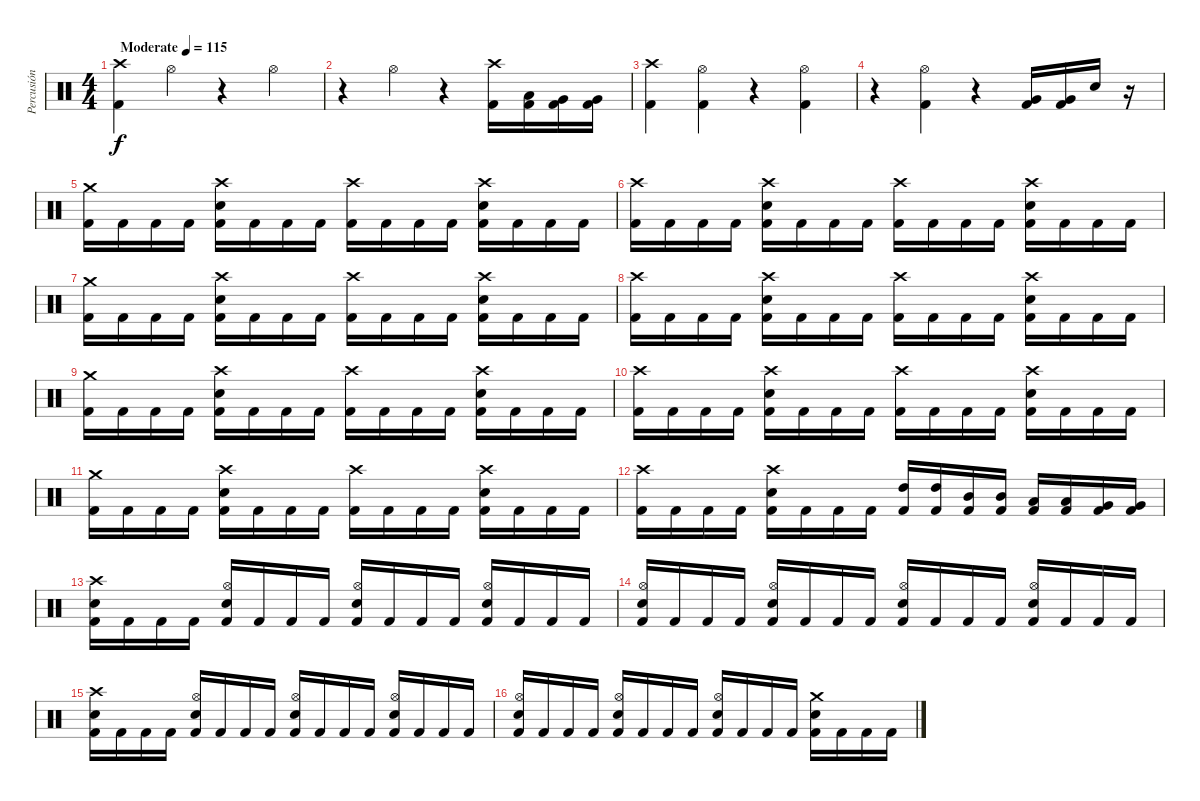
\track ("Percusión" "Percusión") {instrument percussion}
\staff {score}
\articulation defaults
\ts (4 4)
\tempo (115 "Moderate")
\clef neutral
\ks c
("Crash high (hit)" "Kick (hit) 2").4{dy f} "Hi-Hat (open)".4 r.4 "Hi-Hat (open)".4 |
r.4 "Hi-Hat (open)".4 r.4 ("Crash high (hit)" "Kick (hit) 2").16 ("Low Tom (hit)" "Kick (hit) 2").16 ("Very Low Tom (hit)" "Kick (hit) 2").16 ("Very Low Tom (hit)" "Kick (hit) 2").16 |
("Crash high (hit)" "Kick (hit) 2").4 ("Hi-Hat (open)" "Kick (hit) 2").4 r.4 ("Hi-Hat (open)" "Kick (hit) 2").4 |
r.4 ("Hi-Hat (open)" "Kick (hit) 2").4 r.4 ("Very Low Tom (hit)" "Kick (hit) 2").16 ("Very Low Tom (hit)" "Kick (hit) 2").16 "Snare (hit) 2".16 r.16 |
("Crash medium (hit)" "Kick (hit) 2").16 "Kick (hit) 2".16 "Kick (hit) 2".16 "Kick (hit) 2".16 ("Crash high (hit)" "Snare (hit) 2" "Kick (hit) 2").16 "Kick (hit) 2".16 "Kick (hit) 2".16 "Kick (hit) 2".16 ("Crash high (hit)" "Kick (hit) 2").16 "Kick (hit) 2".16 "Kick (hit) 2".16 "Kick (hit) 2".16 ("Crash high (hit)" "Snare (hit) 2" "Kick (hit) 2").16 "Kick (hit) 2".16 "Kick (hit) 2".16 "Kick (hit) 2".16 |
("Crash high (hit)" "Kick (hit) 2").16 "Kick (hit) 2".16 "Kick (hit) 2".16 "Kick (hit) 2".16 ("Crash high (hit)" "Snare (hit) 2" "Kick (hit) 2").16 "Kick (hit) 2".16 "Kick (hit) 2".16 "Kick (hit) 2".16 ("Crash high (hit)" "Kick (hit) 2").16 "Kick (hit) 2".16 "Kick (hit) 2".16 "Kick (hit) 2".16 ("Crash high (hit)" "Snare (hit) 2" "Kick (hit) 2").16 "Kick (hit) 2".16 "Kick (hit) 2".16 "Kick (hit) 2".16 |
("Crash medium (hit)" "Kick (hit) 2").16 "Kick (hit) 2".16 "Kick (hit) 2".16 "Kick (hit) 2".16 ("Crash high (hit)" "Snare (hit) 2" "Kick (hit) 2").16 "Kick (hit) 2".16 "Kick (hit) 2".16 "Kick (hit) 2".16 ("Crash high (hit)" "Kick (hit) 2").16 "Kick (hit) 2".16 "Kick (hit) 2".16 "Kick (hit) 2".16 ("Crash high (hit)" "Snare (hit) 2" "Kick (hit) 2").16 "Kick (hit) 2".16 "Kick (hit) 2".16 "Kick (hit) 2".16 |
("Crash high (hit)" "Kick (hit) 2").16 "Kick (hit) 2".16 "Kick (hit) 2".16 "Kick (hit) 2".16 ("Crash high (hit)" "Snare (hit) 2" "Kick (hit) 2").16 "Kick (hit) 2".16 "Kick (hit) 2".16 "Kick (hit) 2".16 ("Crash high (hit)" "Kick (hit) 2").16 "Kick (hit) 2".16 "Kick (hit) 2".16 "Kick (hit) 2".16 ("Crash high (hit)" "Snare (hit) 2" "Kick (hit) 2").16 "Kick (hit) 2".16 "Kick (hit) 2".16 "Kick (hit) 2".16 |
("Crash medium (hit)" "Kick (hit) 2").16 "Kick (hit) 2".16 "Kick (hit) 2".16 "Kick (hit) 2".16 ("Crash high (hit)" "Snare (hit) 2" "Kick (hit) 2").16 "Kick (hit) 2".16 "Kick (hit) 2".16 "Kick (hit) 2".16 ("Crash high (hit)" "Kick (hit) 2").16 "Kick (hit) 2".16 "Kick (hit) 2".16 "Kick (hit) 2".16 ("Crash high (hit)" "Snare (hit) 2" "Kick (hit) 2").16 "Kick (hit) 2".16 "Kick (hit) 2".16 "Kick (hit) 2".16 |
("Crash high (hit)" "Kick (hit) 2").16 "Kick (hit) 2".16 "Kick (hit) 2".16 "Kick (hit) 2".16 ("Crash high (hit)" "Snare (hit) 2" "Kick (hit) 2").16 "Kick (hit) 2".16 "Kick (hit) 2".16 "Kick (hit) 2".16 ("Crash high (hit)" "Kick (hit) 2").16 "Kick (hit) 2".16 "Kick (hit) 2".16 "Kick (hit) 2".16 ("Crash high (hit)" "Snare (hit) 2" "Kick (hit) 2").16 "Kick (hit) 2".16 "Kick (hit) 2".16 "Kick (hit) 2".16 |
("Crash medium (hit)" "Kick (hit) 2").16 "Kick (hit) 2".16 "Kick (hit) 2".16 "Kick (hit) 2".16 ("Crash high (hit)" "Snare (hit) 2" "Kick (hit) 2").16 "Kick (hit) 2".16 "Kick (hit) 2".16 "Kick (hit) 2".16 ("Crash high (hit)" "Kick (hit) 2").16 "Kick (hit) 2".16 "Kick (hit) 2".16 "Kick (hit) 2".16 ("Crash high (hit)" "Snare (hit) 2" "Kick (hit) 2").16 "Kick (hit) 2".16 "Kick (hit) 2".16 "Kick (hit) 2".16 |
("Crash high (hit)" "Kick (hit) 2").16 "Kick (hit) 2".16 "Kick (hit) 2".16 "Kick (hit) 2".16 ("Crash high (hit)" "Snare (hit) 2" "Kick (hit) 2").16 "Kick (hit) 2".16 "Kick (hit) 2".16 "Kick (hit) 2".16 ("High Tom (hit)" "Kick (hit) 2").16 ("High Tom (hit)" "Kick (hit) 2").16 ("Mid Tom (hit)" "Kick (hit) 2").16 ("Mid Tom (hit)" "Kick (hit) 2").16 ("Low Tom (hit)" "Kick (hit) 2").16 ("Low Tom (hit)" "Kick (hit) 2").16 ("Very Low Tom (hit)" "Kick (hit) 2").16 ("Very Low Tom (hit)" "Kick (hit) 2").16 |
("Crash high (hit)" "Snare (hit) 2" "Kick (hit) 2").16 "Kick (hit) 2".16 "Kick (hit) 2".16 "Kick (hit) 2".16 ("Hi-Hat (open)" "Snare (hit) 2" "Kick (hit) 2").16 "Kick (hit) 2".16 "Kick (hit) 2".16 "Kick (hit) 2".16 ("Hi-Hat (open)" "Snare (hit) 2" "Kick (hit) 2").16 "Kick (hit) 2".16 "Kick (hit) 2".16 "Kick (hit) 2".16 ("Hi-Hat (open)" "Snare (hit) 2" "Kick (hit) 2").16 "Kick (hit) 2".16 "Kick (hit) 2".16 "Kick (hit) 2".16 |
("Hi-Hat (open)" "Snare (hit) 2" "Kick (hit) 2").16 "Kick (hit) 2".16 "Kick (hit) 2".16 "Kick (hit) 2".16 ("Hi-Hat (open)" "Snare (hit) 2" "Kick (hit) 2").16 "Kick (hit) 2".16 "Kick (hit) 2".16 "Kick (hit) 2".16 ("Hi-Hat (open)" "Snare (hit) 2" "Kick (hit) 2").16 "Kick (hit) 2".16 "Kick (hit) 2".16 "Kick (hit) 2".16 ("Hi-Hat (open)" "Snare (hit) 2" "Kick (hit) 2").16 "Kick (hit) 2".16 "Kick (hit) 2".16 "Kick (hit) 2".16 |
("Crash high (hit)" "Snare (hit) 2" "Kick (hit) 2").16 "Kick (hit) 2".16 "Kick (hit) 2".16 "Kick (hit) 2".16 ("Hi-Hat (open)" "Snare (hit) 2" "Kick (hit) 2").16 "Kick (hit) 2".16 "Kick (hit) 2".16 "Kick (hit) 2".16 ("Hi-Hat (open)" "Snare (hit) 2" "Kick (hit) 2").16 "Kick (hit) 2".16 "Kick (hit) 2".16 "Kick (hit) 2".16 ("Hi-Hat (open)" "Snare (hit) 2" "Kick (hit) 2").16 "Kick (hit) 2".16 "Kick (hit) 2".16 "Kick (hit) 2".16 |
("Hi-Hat (open)" "Snare (hit) 2" "Kick (hit) 2").16 "Kick (hit) 2".16 "Kick (hit) 2".16 "Kick (hit) 2".16 ("Hi-Hat (open)" "Snare (hit) 2" "Kick (hit) 2").16 "Kick (hit) 2".16 "Kick (hit) 2".16 "Kick (hit) 2".16 ("Hi-Hat (open)" "Snare (hit) 2" "Kick (hit) 2").16 "Kick (hit) 2".16 "Kick (hit) 2".16 "Kick (hit) 2".16 ("Crash medium (hit)" "Snare (hit) 2" "Kick (hit) 2").16 "Kick (hit) 2".16 "Kick (hit) 2".16 "Kick (hit) 2".16
